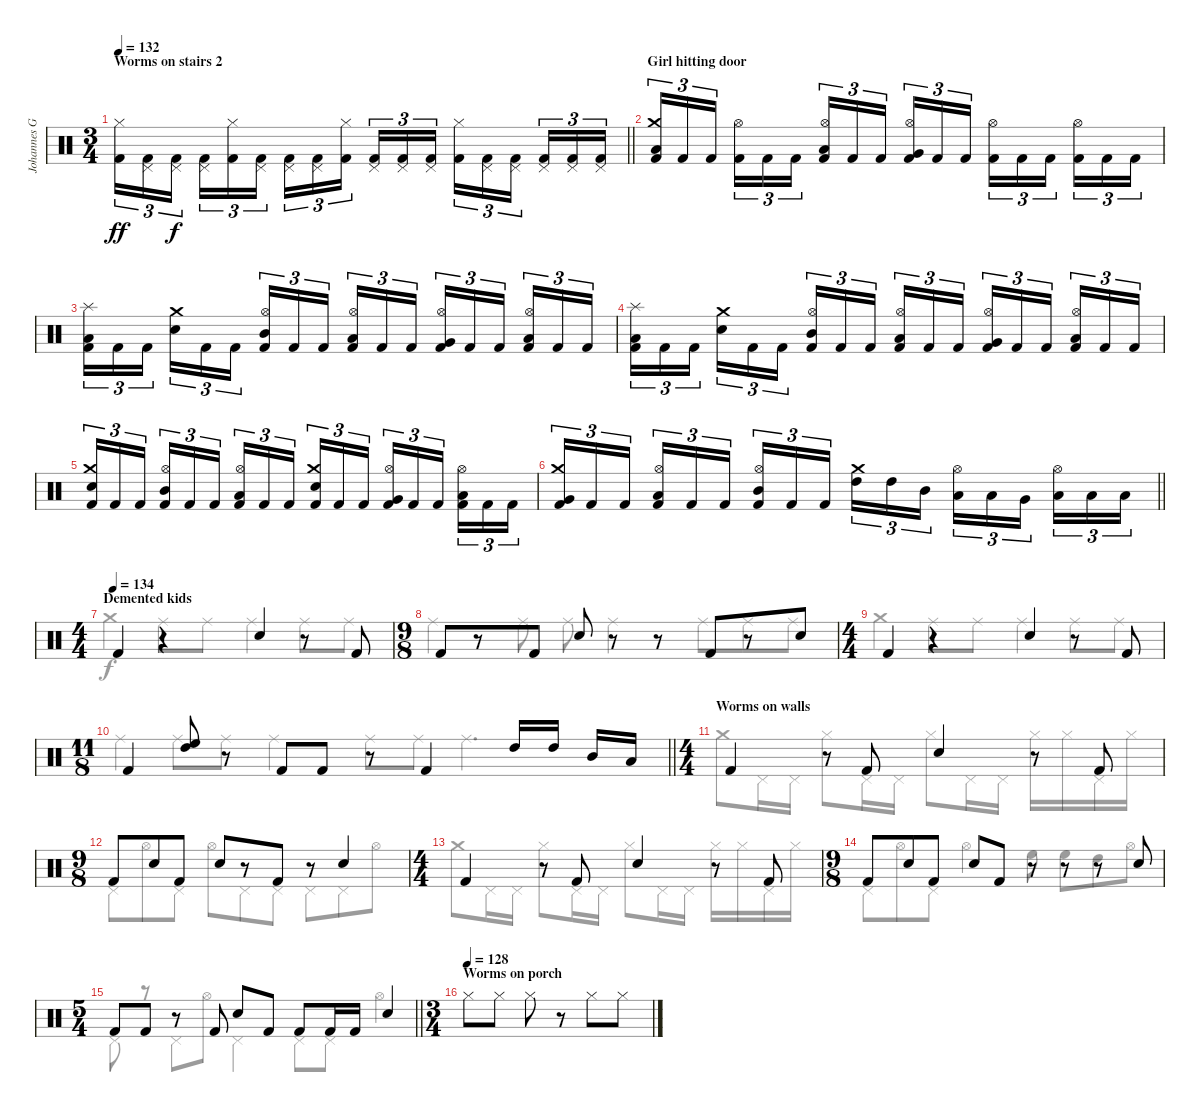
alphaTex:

\track ("Johannes Grossmann" "Johannes G") {instrument percussion}
\staff {score}
\articulation defaults
\voice
\ts (3 4)
\section ("" "Worms on stairs 2")
\tempo 132
\clef neutral
\barLineRight lightlight
\ks c
("Hi-Hat (closed)" "Kick (hit) 2").16{tu (3 2) dy ff} ("Pedal Hi-Hat (hit)" "Kick (hit) 2").16{tu (3 2)} ("Pedal Hi-Hat (hit)" "Kick (hit) 2").16{tu (3 2) dy f beam splitsecondary} ("Pedal Hi-Hat (hit)" "Kick (hit) 2").16{tu (3 2)} ("Hi-Hat (closed)" "Kick (hit) 2").16{tu (3 2)} ("Pedal Hi-Hat (hit)" "Kick (hit) 2").16{tu (3 2)} ("Pedal Hi-Hat (hit)" "Kick (hit) 2").16{tu (3 2)} ("Pedal Hi-Hat (hit)" "Kick (hit) 2").16{tu (3 2)} ("Hi-Hat (closed)" "Kick (hit) 2").16{tu (3 2) beam splitsecondary} ("Pedal Hi-Hat (hit)" "Kick (hit) 2").16{tu (3 2)} ("Pedal Hi-Hat (hit)" "Kick (hit) 2").16{tu (3 2)} ("Pedal Hi-Hat (hit)" "Kick (hit) 2").16{tu (3 2)} ("Hi-Hat (closed)" "Kick (hit) 2").16{tu (3 2)} ("Pedal Hi-Hat (hit)" "Kick (hit) 2").16{tu (3 2)} ("Pedal Hi-Hat (hit)" "Kick (hit) 2").16{tu (3 2) beam splitsecondary} ("Pedal Hi-Hat (hit)" "Kick (hit) 2").16{tu (3 2)} ("Pedal Hi-Hat (hit)" "Kick (hit) 2").16{tu (3 2)} ("Pedal Hi-Hat (hit)" "Kick (hit) 2").16{tu (3 2)} |
\section ("" "Girl hitting door")
("Crash medium (hit)" "Low Floor Tom (hit)" "Kick (hit) 2").16{tu (3 2)} "Kick (hit) 2".16{tu (3 2)} "Kick (hit) 2".16{tu (3 2) beam splitsecondary} ("Hi-Hat (open)" "Kick (hit) 2").16{tu (3 2)} "Kick (hit) 2".16{tu (3 2)} "Kick (hit) 2".16{tu (3 2)} ("Hi-Hat (open)" "Low Tom (hit)" "Kick (hit) 2").16{tu (3 2)} "Kick (hit) 2".16{tu (3 2)} "Kick (hit) 2".16{tu (3 2) beam splitsecondary} ("Hi-Hat (open)" "Very Low Tom (hit)" "Kick (hit) 2").16{tu (3 2)} "Kick (hit) 2".16{tu (3 2)} "Kick (hit) 2".16{tu (3 2)} ("Hi-Hat (open)" "Kick (hit) 2").16{tu (3 2)} "Kick (hit) 2".16{tu (3 2)} "Kick (hit) 2".16{tu (3 2) beam splitsecondary} ("Hi-Hat (open)" "Kick (hit) 2").16{tu (3 2)} "Kick (hit) 2".16{tu (3 2)} "Kick (hit) 2".16{tu (3 2)} |
("Splash (hit)" "Low Floor Tom (hit)" "Kick (hit) 2").16{tu (3 2)} "Kick (hit) 2".16{tu (3 2)} "Kick (hit) 2".16{tu (3 2) beam splitsecondary} ("Crash medium (hit)" "Snare (hit) 2").16{tu (3 2)} "Kick (hit) 2".16{tu (3 2)} "Kick (hit) 2".16{tu (3 2)} ("Hi-Hat (open)" "Mid Tom (hit)" "Kick (hit) 2").16{tu (3 2)} "Kick (hit) 2".16{tu (3 2)} "Kick (hit) 2".16{tu (3 2) beam splitsecondary} ("Hi-Hat (open)" "Low Tom (hit)" "Kick (hit) 2").16{tu (3 2)} "Kick (hit) 2".16{tu (3 2)} "Kick (hit) 2".16{tu (3 2)} ("Hi-Hat (open)" "Very Low Tom (hit)" "Kick (hit) 2").16{tu (3 2)} "Kick (hit) 2".16{tu (3 2)} "Kick (hit) 2".16{tu (3 2) beam splitsecondary} ("Hi-Hat (open)" "Low Tom (hit)" "Kick (hit) 2").16{tu (3 2)} "Kick (hit) 2".16{tu (3 2)} "Kick (hit) 2".16{tu (3 2)} |
("Splash (hit)" "Low Floor Tom (hit)" "Kick (hit) 2").16{tu (3 2)} "Kick (hit) 2".16{tu (3 2)} "Kick (hit) 2".16{tu (3 2) beam splitsecondary} ("Crash medium (hit)" "Snare (hit) 2").16{tu (3 2)} "Kick (hit) 2".16{tu (3 2)} "Kick (hit) 2".16{tu (3 2)} ("Hi-Hat (open)" "Mid Tom (hit)" "Kick (hit) 2").16{tu (3 2)} "Kick (hit) 2".16{tu (3 2)} "Kick (hit) 2".16{tu (3 2) beam splitsecondary} ("Hi-Hat (open)" "Low Tom (hit)" "Kick (hit) 2").16{tu (3 2)} "Kick (hit) 2".16{tu (3 2)} "Kick (hit) 2".16{tu (3 2)} ("Hi-Hat (open)" "Very Low Tom (hit)" "Kick (hit) 2").16{tu (3 2)} "Kick (hit) 2".16{tu (3 2)} "Kick (hit) 2".16{tu (3 2) beam splitsecondary} ("Hi-Hat (open)" "Low Tom (hit)" "Kick (hit) 2").16{tu (3 2)} "Kick (hit) 2".16{tu (3 2)} "Kick (hit) 2".16{tu (3 2)} |
("Crash medium (hit)" "Snare (hit) 2" "Kick (hit) 2").16{tu (3 2)} "Kick (hit) 2".16{tu (3 2)} "Kick (hit) 2".16{tu (3 2) beam splitsecondary} ("Hi-Hat (open)" "Mid Tom (hit)" "Kick (hit) 2").16{tu (3 2)} "Kick (hit) 2".16{tu (3 2)} "Kick (hit) 2".16{tu (3 2)} ("Hi-Hat (open)" "Low Tom (hit)" "Kick (hit) 2").16{tu (3 2)} "Kick (hit) 2".16{tu (3 2)} "Kick (hit) 2".16{tu (3 2) beam splitsecondary} ("Crash medium (hit)" "Snare (hit) 2" "Kick (hit) 2").16{tu (3 2)} "Kick (hit) 2".16{tu (3 2)} "Kick (hit) 2".16{tu (3 2)} ("Hi-Hat (open)" "Very Low Tom (hit)" "Kick (hit) 2").16{tu (3 2)} "Kick (hit) 2".16{tu (3 2)} "Kick (hit) 2".16{tu (3 2) beam splitsecondary} ("Hi-Hat (open)" "Low Floor Tom (hit)" "Kick (hit) 2").16{tu (3 2)} "Kick (hit) 2".16{tu (3 2)} "Kick (hit) 2".16{tu (3 2)} |
\barLineRight lightlight
("Crash medium (hit)" "Very Low Tom (hit)" "Kick (hit) 2").16{tu (3 2)} "Kick (hit) 2".16{tu (3 2)} "Kick (hit) 2".16{tu (3 2) beam splitsecondary} ("Hi-Hat (open)" "Low Tom (hit)" "Kick (hit) 2").16{tu (3 2)} "Kick (hit) 2".16{tu (3 2)} "Kick (hit) 2".16{tu (3 2)} ("Hi-Hat (open)" "Mid Tom (hit)" "Kick (hit) 2").16{tu (3 2)} "Kick (hit) 2".16{tu (3 2)} "Kick (hit) 2".16{tu (3 2) beam splitsecondary} ("Crash medium (hit)" "High Tom (hit)").16{tu (3 2)} "High Tom (hit)".16{tu (3 2)} "Mid Tom (hit)".16{tu (3 2)} ("Hi-Hat (open)" "Low Tom (hit)").16{tu (3 2)} "Low Tom (hit)".16{tu (3 2)} "Very Low Tom (hit)".16{tu (3 2) beam splitsecondary} ("Hi-Hat (open)" "Low Floor Tom (hit)").16{tu (3 2)} "Low Floor Tom (hit)".16{tu (3 2)} "Low Floor Tom (hit)".16{tu (3 2)} |
\ts (4 4)
\section ("" "Demented kids")
\tempo (134)
"Kick (hit) 2".4 r.4 "Snare (hit) 2".4 r.8 "Kick (hit) 2".8 |
\ts (9 8)
"Kick (hit) 2".8 r.8 "Kick (hit) 2".8 "Snare (hit) 2".8 r.8 r.8 "Kick (hit) 2".8 r.8 "Snare (hit) 2".8 |
\ts (4 4)
"Kick (hit) 2".4 r.4 "Snare (hit) 2".4 r.8 "Kick (hit) 2".8 |
\ts (11 8)
\barLineRight lightlight "Kick (hit) 2".4
("High Floor Tom (hit)" "High Tom (hit)").8 r.8 "Kick (hit) 2".8 "Kick (hit) 2".8 r.8 "Kick (hit) 2".4 "High Tom (hit)".16 "High Tom (hit)".16 "Mid Tom (hit)".16 "Low Tom (hit)".16 |
\ts (4 4)
\section ("" "Worms on walls")
"Kick (hit) 2".4 r.8 "Kick (hit) 2".8 "Snare (hit) 2".4 r.8 "Kick (hit) 2".8 |
\ts (9 8)
"Kick (hit) 2".8 "Snare (hit) 2".8 "Kick (hit) 2".8 "Snare (hit) 2".8 r.8 "Kick (hit) 2".8 r.8 "Snare (hit) 2".4 |
\ts (4 4)
"Kick (hit) 2".4 r.8 "Kick (hit) 2".8 "Snare (hit) 2".4 r.8 "Kick (hit) 2".8 |
\ts (9 8)
"Kick (hit) 2".8 "Snare (hit) 2".8 "Kick (hit) 2".8 "Snare (hit) 2".8 "Kick (hit) 2".8 r.8 r.8 r.8 "Snare (hit) 2".8 |
\ts (5 4)
\barLineRight lightlight "Kick (hit) 2".8 "Kick (hit) 2".8
r.8 "Kick (hit) 2".8 "Snare (hit) 2".8 "Kick (hit) 2".8 "Kick (hit) 2".8 "Kick (hit) 2".16 "Kick (hit) 2".16 "Snare (hit) 2".4 |
\ts (3 4)
\section ("" "Worms on porch")
\tempo (128)
"Hi-Hat (closed)".8 "Hi-Hat (closed)".8 "Hi-Hat (closed)".8 r.8 "Hi-Hat (closed)".8 "Hi-Hat (closed)".8
\voice
\clef neutral
\ottava regular
\simile none
\barLineRight lightlight
\ks c
|
|
|
|
|
\barLineRight lightlight
|
"Crash medium (hit)".4 "Ride (middle)".8 "Ride (middle)".8 "Ride (middle)".4 "Ride (middle)".8 "Ride (middle)".8 |
"Ride (middle)".4 "Ride (middle)".8 "Ride (middle)".8 "Ride (middle)".4 "Ride (middle)".8 "Ride (middle)".8 "Ride (middle)".8 |
"Crash medium (hit)".4 "Ride (middle)".8 "Ride (middle)".8 "Ride (middle)".4 "Ride (middle)".8 "Ride (middle)".8 |
\barLineRight lightlight "Ride (middle)".4 "Ride (middle)".8 "Ride (middle)".8 "Ride (middle)".4 "Ride (middle)".8 "Ride (middle)".8 "Ride (middle)".4{d}
|
"Crash medium (hit)".8 "Pedal Hi-Hat (hit)".16 "Pedal Hi-Hat (hit)".16 "Hi-Hat (closed)".8 "Pedal Hi-Hat (hit)".16 "Pedal Hi-Hat (hit)".16 "Hi-Hat (closed)".8 "Pedal Hi-Hat (hit)".16 "Pedal Hi-Hat (hit)".16 "Hi-Hat (closed)".16 "Hi-Hat (closed)".16 "Pedal Hi-Hat (hit)".16 "Hi-Hat (closed)".16 |
"Pedal Hi-Hat (hit)".8 "Hi-Hat (open)".8 "Pedal Hi-Hat (hit)".8 "Hi-Hat (open)".8 "Pedal Hi-Hat (hit)".8 "Pedal Hi-Hat (hit)".8 "Pedal Hi-Hat (hit)".8 "Pedal Hi-Hat (hit)".8 "Hi-Hat (open)".8 |
"Crash medium (hit)".8 "Pedal Hi-Hat (hit)".16 "Pedal Hi-Hat (hit)".16 "Hi-Hat (closed)".8 "Pedal Hi-Hat (hit)".16 "Pedal Hi-Hat (hit)".16 "Hi-Hat (closed)".8 "Pedal Hi-Hat (hit)".16 "Pedal Hi-Hat (hit)".16 "Hi-Hat (closed)".16 "Hi-Hat (closed)".16 "Pedal Hi-Hat (hit)".16 "Hi-Hat (closed)".16 |
"Pedal Hi-Hat (hit)".8 "Hi-Hat (open)".8 "Pedal Hi-Hat (hit)".8 "Hi-Hat (open)".4 "High Floor Tom (hit)".8 "High Floor Tom (hit)".8 "High Tom (hit)".8 "Hi-Hat (open)".8 |
\barLineRight lightlight "Pedal Hi-Hat (hit)".8
r.8 "Pedal Hi-Hat (hit)".8 "Hi-Hat (open)".8 "Pedal Hi-Hat (hit)".4 "Pedal Hi-Hat (hit)".8 "Pedal Hi-Hat (hit)".8 "Hi-Hat (open)".4 |
